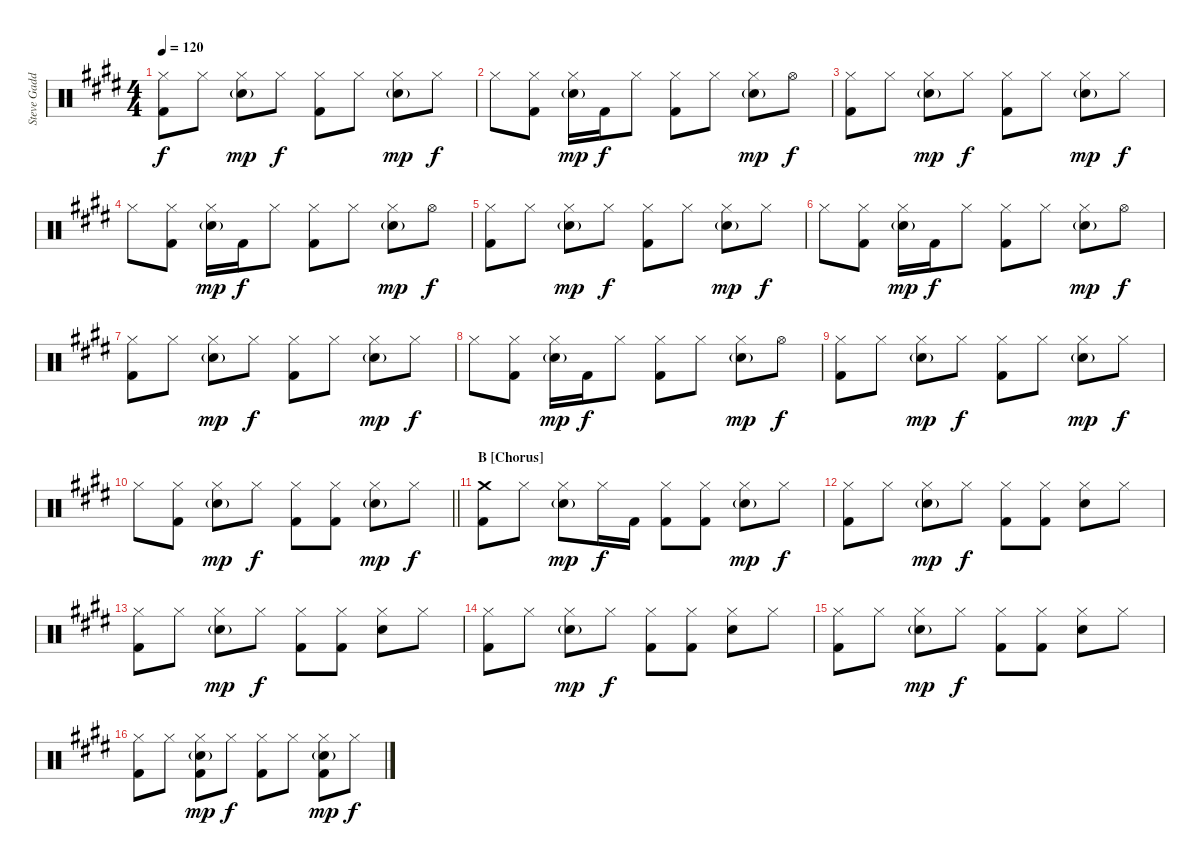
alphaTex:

\track ("Steve Gadd Drums" "Steve Gadd") {instrument percussion}
\staff {score}
\articulation defaults
\ts (4 4)
\tempo 120
\clef neutral
\ks e
("Hi-Hat (closed)" "Kick (hit) 2").8{dy f} "Hi-Hat (closed)".8 ("Hi-Hat (closed)" "Snare (hit) 2"{g}).8{dy mp} "Hi-Hat (closed)".8{dy f} ("Hi-Hat (closed)" "Kick (hit) 2").8 "Hi-Hat (closed)".8 ("Hi-Hat (closed)" "Snare (hit) 2"{g}).8{dy mp} "Hi-Hat (closed)".8{dy f} |
"Hi-Hat (closed)".8 ("Hi-Hat (closed)" "Kick (hit) 2").8 ("Hi-Hat (closed)" "Snare (hit) 2"{g}).16{dy mp} "Kick (hit) 2".16{dy f} "Hi-Hat (closed)".8 ("Hi-Hat (closed)" "Kick (hit) 2").8 "Hi-Hat (closed)".8 ("Hi-Hat (closed)" "Snare (hit) 2"{g}).8{dy mp} "Hi-Hat (open)".8{dy f} |
("Hi-Hat (closed)" "Kick (hit) 2").8 "Hi-Hat (closed)".8 ("Hi-Hat (closed)" "Snare (hit) 2"{g}).8{dy mp} "Hi-Hat (closed)".8{dy f} ("Hi-Hat (closed)" "Kick (hit) 2").8 "Hi-Hat (closed)".8 ("Hi-Hat (closed)" "Snare (hit) 2"{g}).8{dy mp} "Hi-Hat (closed)".8{dy f} |
"Hi-Hat (closed)".8 ("Hi-Hat (closed)" "Kick (hit) 2").8 ("Hi-Hat (closed)" "Snare (hit) 2"{g}).16{dy mp} "Kick (hit) 2".16{dy f} "Hi-Hat (closed)".8 ("Hi-Hat (closed)" "Kick (hit) 2").8 "Hi-Hat (closed)".8 ("Hi-Hat (closed)" "Snare (hit) 2"{g}).8{dy mp} "Hi-Hat (open)".8{dy f} |
("Hi-Hat (closed)" "Kick (hit) 2").8 "Hi-Hat (closed)".8 ("Hi-Hat (closed)" "Snare (hit) 2"{g}).8{dy mp} "Hi-Hat (closed)".8{dy f} ("Hi-Hat (closed)" "Kick (hit) 2").8 "Hi-Hat (closed)".8 ("Hi-Hat (closed)" "Snare (hit) 2"{g}).8{dy mp} "Hi-Hat (closed)".8{dy f} |
"Hi-Hat (closed)".8 ("Hi-Hat (closed)" "Kick (hit) 2").8 ("Hi-Hat (closed)" "Snare (hit) 2"{g}).16{dy mp} "Kick (hit) 2".16{dy f} "Hi-Hat (closed)".8 ("Hi-Hat (closed)" "Kick (hit) 2").8 "Hi-Hat (closed)".8 ("Hi-Hat (closed)" "Snare (hit) 2"{g}).8{dy mp} "Hi-Hat (open)".8{dy f} |
("Hi-Hat (closed)" "Kick (hit) 2").8 "Hi-Hat (closed)".8 ("Hi-Hat (closed)" "Snare (hit) 2"{g}).8{dy mp} "Hi-Hat (closed)".8{dy f} ("Hi-Hat (closed)" "Kick (hit) 2").8 "Hi-Hat (closed)".8 ("Hi-Hat (closed)" "Snare (hit) 2"{g}).8{dy mp} "Hi-Hat (closed)".8{dy f} |
"Hi-Hat (closed)".8 ("Hi-Hat (closed)" "Kick (hit) 2").8 ("Hi-Hat (closed)" "Snare (hit) 2"{g}).16{dy mp} "Kick (hit) 2".16{dy f} "Hi-Hat (closed)".8 ("Hi-Hat (closed)" "Kick (hit) 2").8 "Hi-Hat (closed)".8 ("Hi-Hat (closed)" "Snare (hit) 2"{g}).8{dy mp} "Hi-Hat (open)".8{dy f} |
("Hi-Hat (closed)" "Kick (hit) 2").8 "Hi-Hat (closed)".8 ("Hi-Hat (closed)" "Snare (hit) 2"{g}).8{dy mp} "Hi-Hat (closed)".8{dy f} ("Hi-Hat (closed)" "Kick (hit) 2").8 "Hi-Hat (closed)".8 ("Hi-Hat (closed)" "Snare (hit) 2"{g}).8{dy mp} "Hi-Hat (closed)".8{dy f} |
\barLineRight lightlight "Hi-Hat (closed)".8
("Hi-Hat (closed)" "Kick (hit) 2").8 ("Hi-Hat (closed)" "Snare (hit) 2"{g}).8{dy mp} "Hi-Hat (closed)".8{dy f} ("Hi-Hat (closed)" "Kick (hit) 2").8 ("Hi-Hat (closed)" "Kick (hit) 2").8 ("Hi-Hat (closed)" "Snare (hit) 2"{g}).8{dy mp} "Hi-Hat (closed)".8{dy f} |
\section ("" "B [Chorus]")
("Crash medium (hit)" "Kick (hit) 2").8 "Hi-Hat (closed)".8 ("Hi-Hat (closed)" "Snare (hit) 2"{g}).8{dy mp} "Hi-Hat (closed)".16{dy f} "Kick (hit) 2".16 ("Hi-Hat (closed)" "Kick (hit) 2").8 ("Hi-Hat (closed)" "Kick (hit) 2").8 ("Hi-Hat (closed)" "Snare (hit) 2"{g}).8{dy mp} "Hi-Hat (closed)".8{dy f} |
("Hi-Hat (closed)" "Kick (hit) 2").8 "Hi-Hat (closed)".8 ("Hi-Hat (closed)" "Snare (hit) 2"{g}).8{dy mp} "Hi-Hat (closed)".8{dy f} ("Hi-Hat (closed)" "Kick (hit) 2").8 ("Hi-Hat (closed)" "Kick (hit) 2").8 ("Hi-Hat (closed)" "Snare (hit) 2").8 "Hi-Hat (closed)".8 |
("Hi-Hat (closed)" "Kick (hit) 2").8 "Hi-Hat (closed)".8 ("Hi-Hat (closed)" "Snare (hit) 2"{g}).8{dy mp} "Hi-Hat (closed)".8{dy f} ("Hi-Hat (closed)" "Kick (hit) 2").8 ("Hi-Hat (closed)" "Kick (hit) 2").8 ("Hi-Hat (closed)" "Snare (hit) 2").8 "Hi-Hat (closed)".8 |
("Hi-Hat (closed)" "Kick (hit) 2").8 "Hi-Hat (closed)".8 ("Hi-Hat (closed)" "Snare (hit) 2"{g}).8{dy mp} "Hi-Hat (closed)".8{dy f} ("Hi-Hat (closed)" "Kick (hit) 2").8 ("Hi-Hat (closed)" "Kick (hit) 2").8 ("Hi-Hat (closed)" "Snare (hit) 2").8 "Hi-Hat (closed)".8 |
("Hi-Hat (closed)" "Kick (hit) 2").8 "Hi-Hat (closed)".8 ("Hi-Hat (closed)" "Snare (hit) 2"{g}).8{dy mp} "Hi-Hat (closed)".8{dy f} ("Hi-Hat (closed)" "Kick (hit) 2").8 ("Hi-Hat (closed)" "Kick (hit) 2").8 ("Hi-Hat (closed)" "Snare (hit) 2").8 "Hi-Hat (closed)".8 |
("Hi-Hat (closed)" "Kick (hit) 2").8 "Hi-Hat (closed)".8 ("Hi-Hat (closed)" "Snare (hit) 2"{g} "Kick (hit) 2").8{dy mp} "Hi-Hat (closed)".8{dy f} ("Hi-Hat (closed)" "Kick (hit) 2").8 "Hi-Hat (closed)".8 ("Hi-Hat (closed)" "Snare (hit) 2"{g} "Kick (hit) 2").8{dy mp} "Hi-Hat (closed)".8{dy f}
